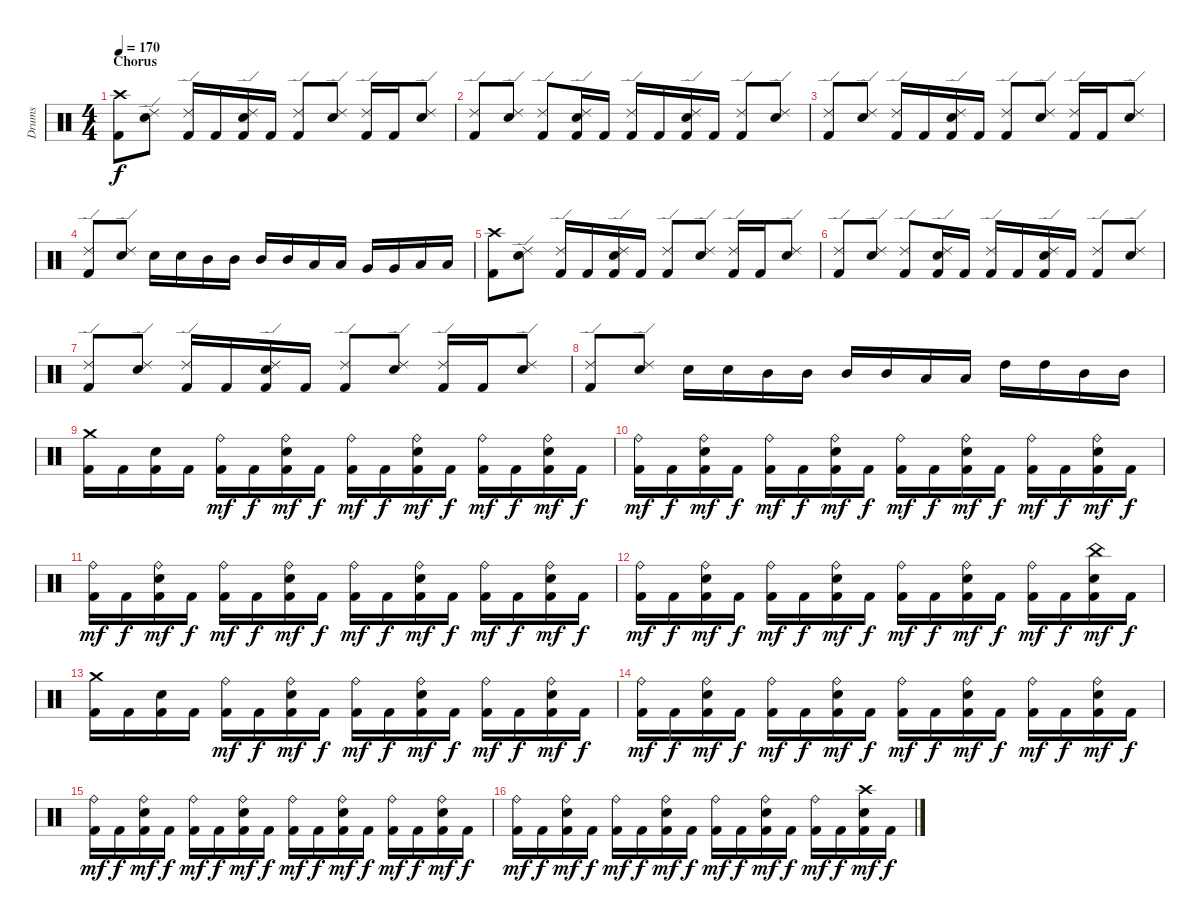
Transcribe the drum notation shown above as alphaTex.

\track ("Drums" "Drums") {instrument percussion}
\staff {score}
\articulation defaults
\ts (4 4)
\section ("" "Chorus")
\tempo 170
\clef neutral
\ks c
("Crash high (hit)" "Kick (hit) 2").8{dy f} ("Ride (edge) 2" "Electric Snare (hit)").8 ("Ride (edge) 2" "Kick (hit) 2").16 "Kick (hit) 2".16 ("Ride (edge) 2" "Electric Snare (hit)" "Kick (hit) 2").16 "Kick (hit) 2".16 ("Ride (edge) 2" "Kick (hit) 2").8 ("Ride (edge) 2" "Electric Snare (hit)").8 ("Ride (edge) 2" "Kick (hit) 2").16 "Kick (hit) 2".16 ("Ride (edge) 2" "Electric Snare (hit)").8 |
("Ride (edge) 2" "Kick (hit) 2").8 ("Ride (edge) 2" "Electric Snare (hit)").8 ("Ride (edge) 2" "Kick (hit) 2").8 ("Ride (edge) 2" "Electric Snare (hit)" "Kick (hit) 2").16 "Kick (hit) 2".16 ("Ride (edge) 2" "Kick (hit) 2").16 "Kick (hit) 2".16 ("Ride (edge) 2" "Electric Snare (hit)" "Kick (hit) 2").16 "Kick (hit) 2".16 ("Ride (edge) 2" "Kick (hit) 2").8 ("Ride (edge) 2" "Electric Snare (hit)").8 |
("Ride (edge) 2" "Kick (hit) 2").8 ("Ride (edge) 2" "Electric Snare (hit)").8 ("Ride (edge) 2" "Kick (hit) 2").16 "Kick (hit) 2".16 ("Ride (edge) 2" "Electric Snare (hit)" "Kick (hit) 2").16 "Kick (hit) 2".16 ("Ride (edge) 2" "Kick (hit) 2").8 ("Ride (edge) 2" "Electric Snare (hit)").8 ("Ride (edge) 2" "Kick (hit) 2").16 "Kick (hit) 2".16 ("Ride (edge) 2" "Electric Snare (hit)").8 |
("Ride (edge) 2" "Kick (hit) 2").8 ("Ride (edge) 2" "Electric Snare (hit)").8 "Electric Snare (hit)".16 "Electric Snare (hit)".16 "Mid Tom (hit)".16 "Mid Tom (hit)".16 "Mid Tom (hit)".16 "Mid Tom (hit)".16 "Low Tom (hit)".16 "Low Tom (hit)".16 "Very Low Tom (hit)".16 "Very Low Tom (hit)".16 "Low Floor Tom (hit)".16 "Low Floor Tom (hit)".16 |
("Crash high (hit)" "Kick (hit) 2").8 ("Ride (edge) 2" "Electric Snare (hit)").8 ("Ride (edge) 2" "Kick (hit) 2").16 "Kick (hit) 2".16 ("Ride (edge) 2" "Electric Snare (hit)" "Kick (hit) 2").16 "Kick (hit) 2".16 ("Ride (edge) 2" "Kick (hit) 2").8 ("Ride (edge) 2" "Electric Snare (hit)").8 ("Ride (edge) 2" "Kick (hit) 2").16 "Kick (hit) 2".16 ("Ride (edge) 2" "Electric Snare (hit)").8 |
("Ride (edge) 2" "Kick (hit) 2").8 ("Ride (edge) 2" "Electric Snare (hit)").8 ("Ride (edge) 2" "Kick (hit) 2").8 ("Ride (edge) 2" "Electric Snare (hit)" "Kick (hit) 2").16 "Kick (hit) 2".16 ("Ride (edge) 2" "Kick (hit) 2").16 "Kick (hit) 2".16 ("Ride (edge) 2" "Electric Snare (hit)" "Kick (hit) 2").16 "Kick (hit) 2".16 ("Ride (edge) 2" "Kick (hit) 2").8 ("Ride (edge) 2" "Electric Snare (hit)").8 |
("Ride (edge) 2" "Kick (hit) 2").8 ("Ride (edge) 2" "Electric Snare (hit)").8 ("Ride (edge) 2" "Kick (hit) 2").16 "Kick (hit) 2".16 ("Ride (edge) 2" "Electric Snare (hit)" "Kick (hit) 2").16 "Kick (hit) 2".16 ("Ride (edge) 2" "Kick (hit) 2").8 ("Ride (edge) 2" "Electric Snare (hit)").8 ("Ride (edge) 2" "Kick (hit) 2").16 "Kick (hit) 2".16 ("Ride (edge) 2" "Electric Snare (hit)").8 |
("Ride (edge) 2" "Kick (hit) 2").8 ("Ride (edge) 2" "Electric Snare (hit)").8 "Electric Snare (hit)".16 "Electric Snare (hit)".16 "Mid Tom (hit)".16 "Mid Tom (hit)".16 "Mid Tom (hit)".16 "Mid Tom (hit)".16 "Low Tom (hit)".16 "Low Tom (hit)".16 "High Tom (hit)".16 "High Tom (hit)".16 "Mid Tom (hit)".16 "Mid Tom (hit)".16 |
("Crash medium (hit)" "Kick (hit) 2").16 "Kick (hit) 2".16 ("Electric Snare (hit)" "Kick (hit) 2").16 "Kick (hit) 2".16 ("Ride (bell)" "Kick (hit) 2").16{dy mf} "Kick (hit) 2".16{dy f} ("Ride (bell)" "Electric Snare (hit)" "Kick (hit) 2").16{dy mf} "Kick (hit) 2".16{dy f} ("Ride (bell)" "Kick (hit) 2").16{dy mf} "Kick (hit) 2".16{dy f} ("Ride (bell)" "Electric Snare (hit)" "Kick (hit) 2").16{dy mf} "Kick (hit) 2".16{dy f} ("Ride (bell)" "Kick (hit) 2").16{dy mf} "Kick (hit) 2".16{dy f} ("Ride (bell)" "Electric Snare (hit)" "Kick (hit) 2").16{dy mf} "Kick (hit) 2".16{dy f} |
("Ride (bell)" "Kick (hit) 2").16{dy mf} "Kick (hit) 2".16{dy f} ("Ride (bell)" "Electric Snare (hit)" "Kick (hit) 2").16{dy mf} "Kick (hit) 2".16{dy f} ("Ride (bell)" "Kick (hit) 2").16{dy mf} "Kick (hit) 2".16{dy f} ("Ride (bell)" "Electric Snare (hit)" "Kick (hit) 2").16{dy mf} "Kick (hit) 2".16{dy f} ("Ride (bell)" "Kick (hit) 2").16{dy mf} "Kick (hit) 2".16{dy f} ("Ride (bell)" "Electric Snare (hit)" "Kick (hit) 2").16{dy mf} "Kick (hit) 2".16{dy f} ("Ride (bell)" "Kick (hit) 2").16{dy mf} "Kick (hit) 2".16{dy f} ("Ride (bell)" "Electric Snare (hit)" "Kick (hit) 2").16{dy mf} "Kick (hit) 2".16{dy f} |
("Ride (bell)" "Kick (hit) 2").16{dy mf} "Kick (hit) 2".16{dy f} ("Ride (bell)" "Electric Snare (hit)" "Kick (hit) 2").16{dy mf} "Kick (hit) 2".16{dy f} ("Ride (bell)" "Kick (hit) 2").16{dy mf} "Kick (hit) 2".16{dy f} ("Ride (bell)" "Electric Snare (hit)" "Kick (hit) 2").16{dy mf} "Kick (hit) 2".16{dy f} ("Ride (bell)" "Kick (hit) 2").16{dy mf} "Kick (hit) 2".16{dy f} ("Ride (bell)" "Electric Snare (hit)" "Kick (hit) 2").16{dy mf} "Kick (hit) 2".16{dy f} ("Ride (bell)" "Kick (hit) 2").16{dy mf} "Kick (hit) 2".16{dy f} ("Ride (bell)" "Electric Snare (hit)" "Kick (hit) 2").16{dy mf} "Kick (hit) 2".16{dy f} |
("Ride (bell)" "Kick (hit) 2").16{dy mf} "Kick (hit) 2".16{dy f} ("Ride (bell)" "Electric Snare (hit)" "Kick (hit) 2").16{dy mf} "Kick (hit) 2".16{dy f} ("Ride (bell)" "Kick (hit) 2").16{dy mf} "Kick (hit) 2".16{dy f} ("Ride (bell)" "Electric Snare (hit)" "Kick (hit) 2").16{dy mf} "Kick (hit) 2".16{dy f} ("Ride (bell)" "Kick (hit) 2").16{dy mf} "Kick (hit) 2".16{dy f} ("Ride (bell)" "Electric Snare (hit)" "Kick (hit) 2").16{dy mf} "Kick (hit) 2".16{dy f} ("Ride (bell)" "Kick (hit) 2").16{dy mf} "Kick (hit) 2".16{dy f} ("China (hit)" "Electric Snare (hit)" "Kick (hit) 2").16{dy mf} "Kick (hit) 2".16{dy f} |
("Crash medium (hit)" "Kick (hit) 2").16 "Kick (hit) 2".16 ("Electric Snare (hit)" "Kick (hit) 2").16 "Kick (hit) 2".16 ("Ride (bell)" "Kick (hit) 2").16{dy mf} "Kick (hit) 2".16{dy f} ("Ride (bell)" "Electric Snare (hit)" "Kick (hit) 2").16{dy mf} "Kick (hit) 2".16{dy f} ("Ride (bell)" "Kick (hit) 2").16{dy mf} "Kick (hit) 2".16{dy f} ("Ride (bell)" "Electric Snare (hit)" "Kick (hit) 2").16{dy mf} "Kick (hit) 2".16{dy f} ("Ride (bell)" "Kick (hit) 2").16{dy mf} "Kick (hit) 2".16{dy f} ("Ride (bell)" "Electric Snare (hit)" "Kick (hit) 2").16{dy mf} "Kick (hit) 2".16{dy f} |
("Ride (bell)" "Kick (hit) 2").16{dy mf} "Kick (hit) 2".16{dy f} ("Ride (bell)" "Electric Snare (hit)" "Kick (hit) 2").16{dy mf} "Kick (hit) 2".16{dy f} ("Ride (bell)" "Kick (hit) 2").16{dy mf} "Kick (hit) 2".16{dy f} ("Ride (bell)" "Electric Snare (hit)" "Kick (hit) 2").16{dy mf} "Kick (hit) 2".16{dy f} ("Ride (bell)" "Kick (hit) 2").16{dy mf} "Kick (hit) 2".16{dy f} ("Ride (bell)" "Electric Snare (hit)" "Kick (hit) 2").16{dy mf} "Kick (hit) 2".16{dy f} ("Ride (bell)" "Kick (hit) 2").16{dy mf} "Kick (hit) 2".16{dy f} ("Ride (bell)" "Electric Snare (hit)" "Kick (hit) 2").16{dy mf} "Kick (hit) 2".16{dy f} |
("Ride (bell)" "Kick (hit) 2").16{dy mf} "Kick (hit) 2".16{dy f} ("Ride (bell)" "Electric Snare (hit)" "Kick (hit) 2").16{dy mf} "Kick (hit) 2".16{dy f} ("Ride (bell)" "Kick (hit) 2").16{dy mf} "Kick (hit) 2".16{dy f} ("Ride (bell)" "Electric Snare (hit)" "Kick (hit) 2").16{dy mf} "Kick (hit) 2".16{dy f} ("Ride (bell)" "Kick (hit) 2").16{dy mf} "Kick (hit) 2".16{dy f} ("Ride (bell)" "Electric Snare (hit)" "Kick (hit) 2").16{dy mf} "Kick (hit) 2".16{dy f} ("Ride (bell)" "Kick (hit) 2").16{dy mf} "Kick (hit) 2".16{dy f} ("Ride (bell)" "Electric Snare (hit)" "Kick (hit) 2").16{dy mf} "Kick (hit) 2".16{dy f} |
("Ride (bell)" "Kick (hit) 2").16{dy mf} "Kick (hit) 2".16{dy f} ("Ride (bell)" "Electric Snare (hit)" "Kick (hit) 2").16{dy mf} "Kick (hit) 2".16{dy f} ("Ride (bell)" "Kick (hit) 2").16{dy mf} "Kick (hit) 2".16{dy f} ("Ride (bell)" "Electric Snare (hit)" "Kick (hit) 2").16{dy mf} "Kick (hit) 2".16{dy f} ("Ride (bell)" "Kick (hit) 2").16{dy mf} "Kick (hit) 2".16{dy f} ("Ride (bell)" "Electric Snare (hit)" "Kick (hit) 2").16{dy mf} "Kick (hit) 2".16{dy f} ("Ride (bell)" "Kick (hit) 2").16{dy mf} "Kick (hit) 2".16{dy f} ("Crash high (hit)" "Electric Snare (hit)" "Kick (hit) 2").16{dy mf} "Kick (hit) 2".16{dy f}
